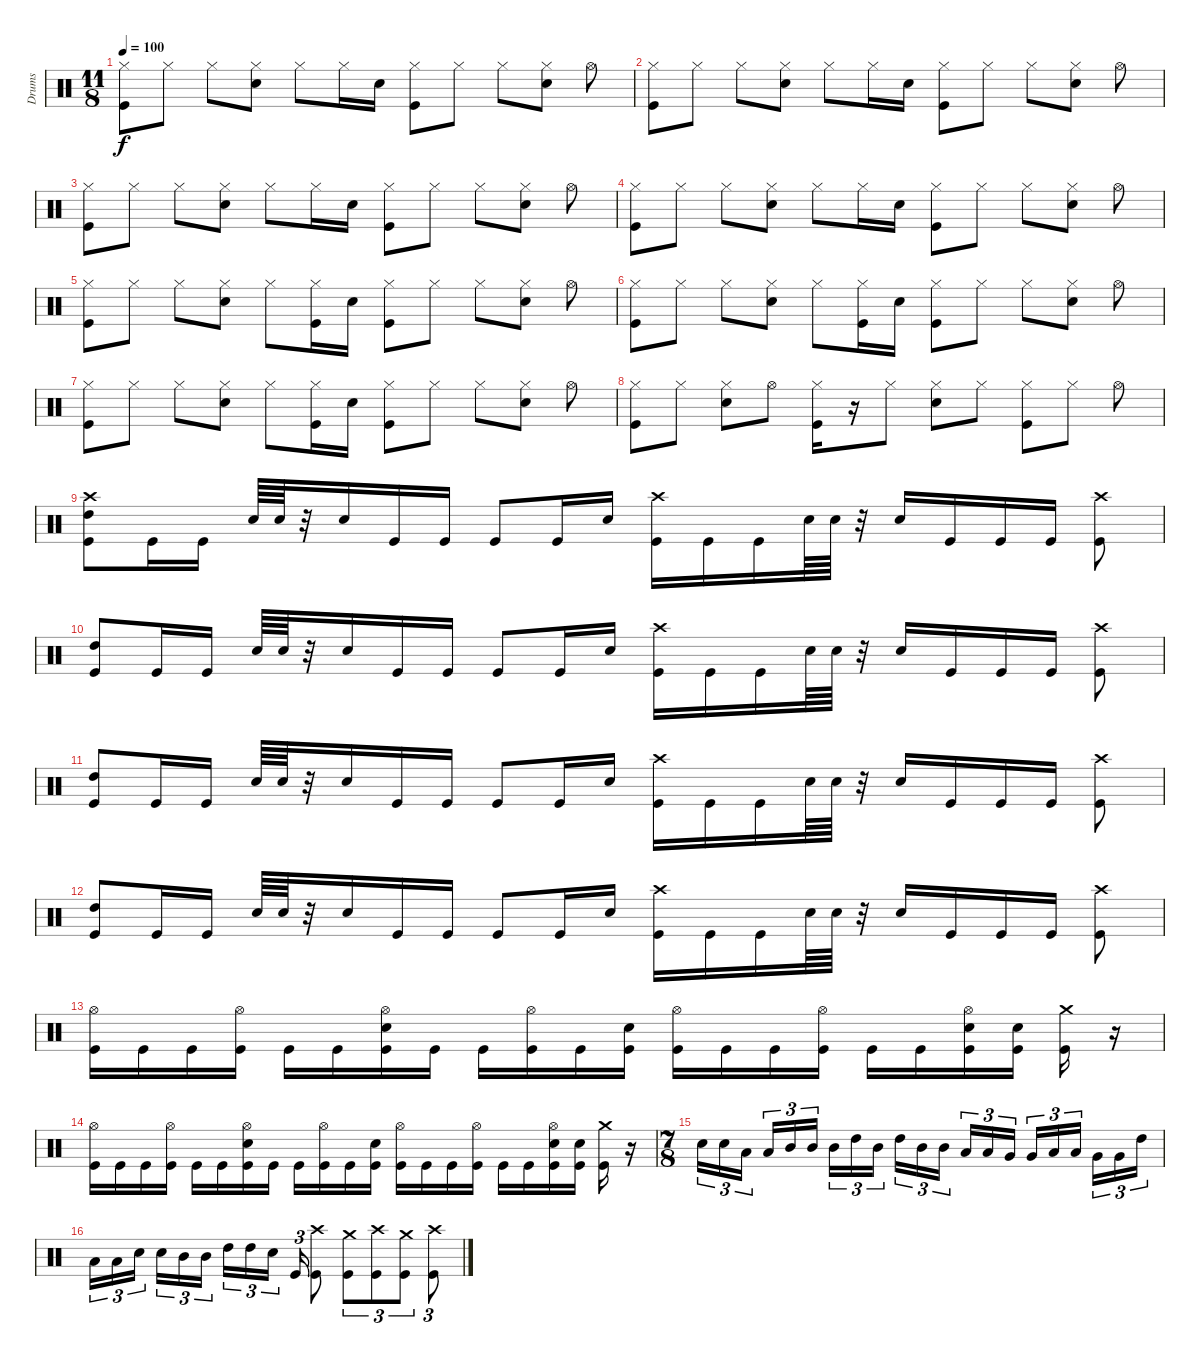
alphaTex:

\track ("Drums" "Drums") {instrument percussion}
\staff {score}
\articulation defaults
\ts (11 8)
\tempo 100
\clef neutral
\ks c
("Kick (hit)" "Hi-Hat (closed)").8{dy f} "Hi-Hat (closed)".8 "Hi-Hat (closed)".8 ("Snare (hit) 2" "Hi-Hat (closed)").8 "Hi-Hat (closed)".8 "Hi-Hat (closed)".16 "Snare (hit) 2".16 ("Kick (hit)" "Hi-Hat (closed)").8 "Hi-Hat (closed)".8 "Hi-Hat (closed)".8 ("Snare (hit) 2" "Hi-Hat (closed)").8 "Hi-Hat (open)".8 |
("Kick (hit)" "Hi-Hat (closed)").8 "Hi-Hat (closed)".8 "Hi-Hat (closed)".8 ("Snare (hit) 2" "Hi-Hat (closed)").8 "Hi-Hat (closed)".8 "Hi-Hat (closed)".16 "Snare (hit) 2".16 ("Kick (hit)" "Hi-Hat (closed)").8 "Hi-Hat (closed)".8 "Hi-Hat (closed)".8 ("Snare (hit) 2" "Hi-Hat (closed)").8 "Hi-Hat (open)".8 |
("Kick (hit)" "Hi-Hat (closed)").8 "Hi-Hat (closed)".8 "Hi-Hat (closed)".8 ("Snare (hit) 2" "Hi-Hat (closed)").8 "Hi-Hat (closed)".8 "Hi-Hat (closed)".16 "Snare (hit) 2".16 ("Kick (hit)" "Hi-Hat (closed)").8 "Hi-Hat (closed)".8 "Hi-Hat (closed)".8 ("Snare (hit) 2" "Hi-Hat (closed)").8 "Hi-Hat (open)".8 |
("Kick (hit)" "Hi-Hat (closed)").8 "Hi-Hat (closed)".8 "Hi-Hat (closed)".8 ("Snare (hit) 2" "Hi-Hat (closed)").8 "Hi-Hat (closed)".8 "Hi-Hat (closed)".16 "Snare (hit) 2".16 ("Kick (hit)" "Hi-Hat (closed)").8 "Hi-Hat (closed)".8 "Hi-Hat (closed)".8 ("Snare (hit) 2" "Hi-Hat (closed)").8 "Hi-Hat (open)".8 |
("Kick (hit)" "Hi-Hat (closed)").8 "Hi-Hat (closed)".8 "Hi-Hat (closed)".8 ("Snare (hit) 2" "Hi-Hat (closed)").8 "Hi-Hat (closed)".8 ("Kick (hit)" "Hi-Hat (closed)").16 "Snare (hit) 2".16 ("Kick (hit)" "Hi-Hat (closed)").8 "Hi-Hat (closed)".8 "Hi-Hat (closed)".8 ("Snare (hit) 2" "Hi-Hat (closed)").8 "Hi-Hat (open)".8 |
("Kick (hit)" "Hi-Hat (closed)").8 "Hi-Hat (closed)".8 "Hi-Hat (closed)".8 ("Snare (hit) 2" "Hi-Hat (closed)").8 "Hi-Hat (closed)".8 ("Kick (hit)" "Hi-Hat (closed)").16 "Snare (hit) 2".16 ("Kick (hit)" "Hi-Hat (closed)").8 "Hi-Hat (closed)".8 "Hi-Hat (closed)".8 ("Snare (hit) 2" "Hi-Hat (closed)").8 "Hi-Hat (open)".8 |
("Kick (hit)" "Hi-Hat (closed)").8 "Hi-Hat (closed)".8 "Hi-Hat (closed)".8 ("Snare (hit) 2" "Hi-Hat (closed)").8 "Hi-Hat (closed)".8 ("Kick (hit)" "Hi-Hat (closed)").16 "Snare (hit) 2".16 ("Kick (hit)" "Hi-Hat (closed)").8 "Hi-Hat (closed)".8 "Hi-Hat (closed)".8 ("Snare (hit) 2" "Hi-Hat (closed)").8 "Hi-Hat (open)".8 |
("Kick (hit)" "Hi-Hat (closed)").8 "Hi-Hat (closed)".8 ("Snare (hit) 2" "Hi-Hat (closed)").8 "Hi-Hat (open)".8 ("Kick (hit)" "Hi-Hat (closed)").16 r.16 "Hi-Hat (closed)".8 ("Snare (hit) 2" "Hi-Hat (closed)").8 "Hi-Hat (closed)".8 ("Kick (hit)" "Hi-Hat (closed)").8 "Hi-Hat (closed)".8 "Hi-Hat (open)".8 |
("Kick (hit)" "High Tom (hit)" "Crash high (hit)").8 "Kick (hit)".16 "Kick (hit)".16 "Snare (hit) 2".64 "Snare (hit) 2".64 r.32 "Snare (hit) 2".16 "Kick (hit)".16 "Kick (hit)".16 "Kick (hit)".8 "Kick (hit)".16 "Snare (hit) 2".16 ("Kick (hit)" "Crash high (hit)").16 "Kick (hit)".16 "Kick (hit)".16 "Snare (hit) 2".64 "Snare (hit) 2".64 r.32 "Snare (hit) 2".16 "Kick (hit)".16 "Kick (hit)".16 "Kick (hit)".16 ("Kick (hit)" "Crash high (hit)").8 |
("Kick (hit)" "High Tom (hit)").8 "Kick (hit)".16 "Kick (hit)".16 "Snare (hit) 2".64 "Snare (hit) 2".64 r.32 "Snare (hit) 2".16 "Kick (hit)".16 "Kick (hit)".16 "Kick (hit)".8 "Kick (hit)".16 "Snare (hit) 2".16 ("Kick (hit)" "Crash high (hit)").16 "Kick (hit)".16 "Kick (hit)".16 "Snare (hit) 2".64 "Snare (hit) 2".64 r.32 "Snare (hit) 2".16 "Kick (hit)".16 "Kick (hit)".16 "Kick (hit)".16 ("Kick (hit)" "Crash high (hit)").8 |
("Kick (hit)" "High Tom (hit)").8 "Kick (hit)".16 "Kick (hit)".16 "Snare (hit) 2".64 "Snare (hit) 2".64 r.32 "Snare (hit) 2".16 "Kick (hit)".16 "Kick (hit)".16 "Kick (hit)".8 "Kick (hit)".16 "Snare (hit) 2".16 ("Kick (hit)" "Crash high (hit)").16 "Kick (hit)".16 "Kick (hit)".16 "Snare (hit) 2".64 "Snare (hit) 2".64 r.32 "Snare (hit) 2".16 "Kick (hit)".16 "Kick (hit)".16 "Kick (hit)".16 ("Kick (hit)" "Crash high (hit)").8 |
("Kick (hit)" "High Tom (hit)").8 "Kick (hit)".16 "Kick (hit)".16 "Snare (hit) 2".64 "Snare (hit) 2".64 r.32 "Snare (hit) 2".16 "Kick (hit)".16 "Kick (hit)".16 "Kick (hit)".8 "Kick (hit)".16 "Snare (hit) 2".16 ("Kick (hit)" "Crash high (hit)").16 "Kick (hit)".16 "Kick (hit)".16 "Snare (hit) 2".64 "Snare (hit) 2".64 r.32 "Snare (hit) 2".16 "Kick (hit)".16 "Kick (hit)".16 "Kick (hit)".16 ("Kick (hit)" "Crash high (hit)").8 |
("Kick (hit)" "Hi-Hat (open)").16 "Kick (hit)".16 "Kick (hit)".16 ("Kick (hit)" "Hi-Hat (open)").16 "Kick (hit)".16 "Kick (hit)".16 ("Kick (hit)" "Snare (hit) 2" "Hi-Hat (open)").16 "Kick (hit)".16 "Kick (hit)".16 ("Kick (hit)" "Hi-Hat (open)").16 "Kick (hit)".16 ("Kick (hit)" "Snare (hit) 2").16 ("Kick (hit)" "Hi-Hat (open)").16 "Kick (hit)".16 "Kick (hit)".16 ("Kick (hit)" "Hi-Hat (open)").16 "Kick (hit)".16 "Kick (hit)".16 ("Kick (hit)" "Snare (hit) 2" "Hi-Hat (open)").16 ("Kick (hit)" "Snare (hit) 2").16 ("Kick (hit)" "Crash medium (hit)").16 r.16 |
("Kick (hit)" "Hi-Hat (open)").16 "Kick (hit)".16 "Kick (hit)".16 ("Kick (hit)" "Hi-Hat (open)").16 "Kick (hit)".16 "Kick (hit)".16 ("Kick (hit)" "Snare (hit) 2" "Hi-Hat (open)").16 "Kick (hit)".16 "Kick (hit)".16 ("Kick (hit)" "Hi-Hat (open)").16 "Kick (hit)".16 ("Kick (hit)" "Snare (hit) 2").16 ("Kick (hit)" "Hi-Hat (open)").16 "Kick (hit)".16 "Kick (hit)".16 ("Kick (hit)" "Hi-Hat (open)").16 "Kick (hit)".16 "Kick (hit)".16 ("Kick (hit)" "Snare (hit) 2" "Hi-Hat (open)").16 ("Kick (hit)" "Snare (hit) 2").16 ("Kick (hit)" "Crash medium (hit)").16 r.16 |
\ts (7 8)
"Snare (hit) 2".16{tu (3 2)} "Snare (hit) 2".16{tu (3 2)} "Low Tom (hit)".16{tu (3 2)} "Low Tom (hit)".16{tu (3 2)} "Mid Tom (hit)".16{tu (3 2)} "Mid Tom (hit)".16{tu (3 2)} "Mid Tom (hit)".16{tu (3 2)} "High Tom (hit)".16{tu (3 2)} "Mid Tom (hit)".16{tu (3 2)} "High Tom (hit)".16{tu (3 2)} "Mid Tom (hit)".16{tu (3 2)} "Mid Tom (hit)".16{tu (3 2)} "Low Tom (hit)".16{tu (3 2)} "Low Tom (hit)".16{tu (3 2)} "Very Low Tom (hit)".16{tu (3 2)} "Very Low Tom (hit)".16{tu (3 2)} "Low Floor Tom (hit)".16{tu (3 2)} "Low Floor Tom (hit)".16{tu (3 2)} "Very Low Tom (hit)".16{tu (3 2)} "Very Low Tom (hit)".16{tu (3 2)} "High Tom (hit)".16{tu (3 2)} |
"Low Tom (hit)".16{tu (3 2)} "Low Tom (hit)".16{tu (3 2)} "Snare (hit) 2".16{tu (3 2)} "Snare (hit) 2".16{tu (3 2)} "Mid Tom (hit)".16{tu (3 2)} "Mid Tom (hit)".16{tu (3 2)} "High Tom (hit)".16{tu (3 2)} "High Tom (hit)".16{tu (3 2)} "Snare (hit) 2".16{tu (3 2)} "Kick (hit)".16{tu (3 2)} ("Kick (hit)" "Crash high (hit)").8 ("Kick (hit)" "Crash medium (hit)").8{tu (3 2)} ("Kick (hit)" "Crash high (hit)").8{tu (3 2)} ("Kick (hit)" "Crash medium (hit)").8{tu (3 2)} ("Kick (hit)" "Crash high (hit)").8{tu (3 2)}
